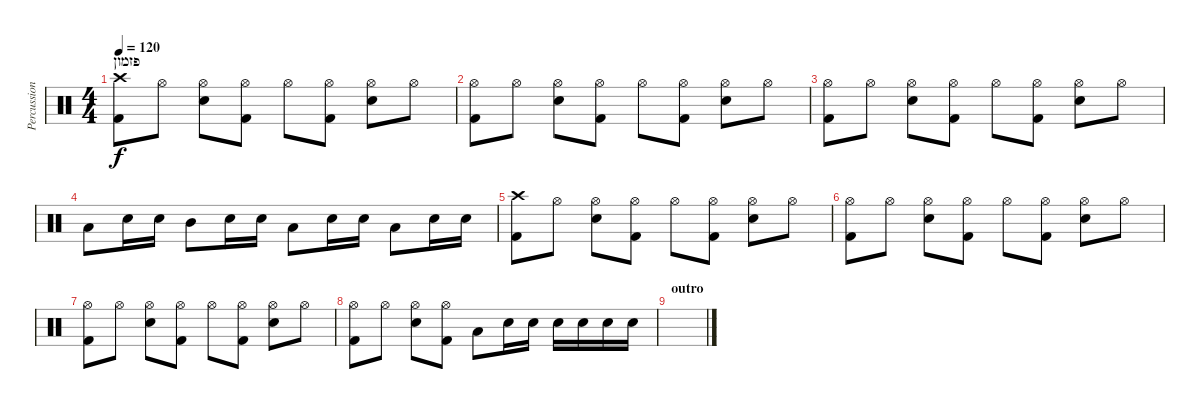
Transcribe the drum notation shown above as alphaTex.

\track ("Percussion" "Percussion") {instrument percussion}
\staff {score}
\articulation defaults
\ts (4 4)
\section ("" "פזמון")
\tempo 120
\clef neutral
\ks c
("Crash high (hit)" "Kick (hit) 2").8{dy f} "Hi-Hat (open)".8 ("Hi-Hat (open)" "Electric Snare (hit)").8 ("Hi-Hat (open)" "Kick (hit) 2").8 "Hi-Hat (open)".8 ("Hi-Hat (open)" "Kick (hit) 2").8 ("Hi-Hat (open)" "Electric Snare (hit)").8 "Hi-Hat (open)".8 |
("Hi-Hat (open)" "Kick (hit) 2").8 "Hi-Hat (open)".8 ("Hi-Hat (open)" "Electric Snare (hit)").8 ("Hi-Hat (open)" "Kick (hit) 2").8 "Hi-Hat (open)".8 ("Hi-Hat (open)" "Kick (hit) 2").8 ("Hi-Hat (open)" "Electric Snare (hit)").8 "Hi-Hat (open)".8 |
("Hi-Hat (open)" "Kick (hit) 2").8 "Hi-Hat (open)".8 ("Hi-Hat (open)" "Electric Snare (hit)").8 ("Hi-Hat (open)" "Kick (hit) 2").8 "Hi-Hat (open)".8 ("Hi-Hat (open)" "Kick (hit) 2").8 ("Hi-Hat (open)" "Electric Snare (hit)").8 "Hi-Hat (open)".8 |
"Low Tom (hit)".8 "Electric Snare (hit)".16 "Electric Snare (hit)".16 "Mid Tom (hit)".8 "Electric Snare (hit)".16 "Electric Snare (hit)".16 "Low Floor Tom (hit)".8 "Electric Snare (hit)".16 "Electric Snare (hit)".16 "Low Tom (hit)".8 "Electric Snare (hit)".16 "Electric Snare (hit)".16 |
("Crash high (hit)" "Kick (hit) 2").8 "Hi-Hat (open)".8 ("Hi-Hat (open)" "Electric Snare (hit)").8 ("Hi-Hat (open)" "Kick (hit) 2").8 "Hi-Hat (open)".8 ("Hi-Hat (open)" "Kick (hit) 2").8 ("Hi-Hat (open)" "Electric Snare (hit)").8 "Hi-Hat (open)".8 |
("Hi-Hat (open)" "Kick (hit) 2").8 "Hi-Hat (open)".8 ("Hi-Hat (open)" "Electric Snare (hit)").8 ("Hi-Hat (open)" "Kick (hit) 2").8 "Hi-Hat (open)".8 ("Hi-Hat (open)" "Kick (hit) 2").8 ("Hi-Hat (open)" "Electric Snare (hit)").8 "Hi-Hat (open)".8 |
("Hi-Hat (open)" "Kick (hit) 2").8 "Hi-Hat (open)".8 ("Hi-Hat (open)" "Electric Snare (hit)").8 ("Hi-Hat (open)" "Kick (hit) 2").8 "Hi-Hat (open)".8 ("Hi-Hat (open)" "Kick (hit) 2").8 ("Hi-Hat (open)" "Electric Snare (hit)").8 "Hi-Hat (open)".8 |
("Hi-Hat (open)" "Kick (hit) 2").8 "Hi-Hat (open)".8 ("Hi-Hat (open)" "Electric Snare (hit)").8 ("Hi-Hat (open)" "Kick (hit) 2").8 "Low Tom (hit)".8 "Electric Snare (hit)".16 "Electric Snare (hit)".16 "Electric Snare (hit)".16 "Electric Snare (hit)".16 "Electric Snare (hit)".16 "Electric Snare (hit)".16 |
\section ("" "outro")
